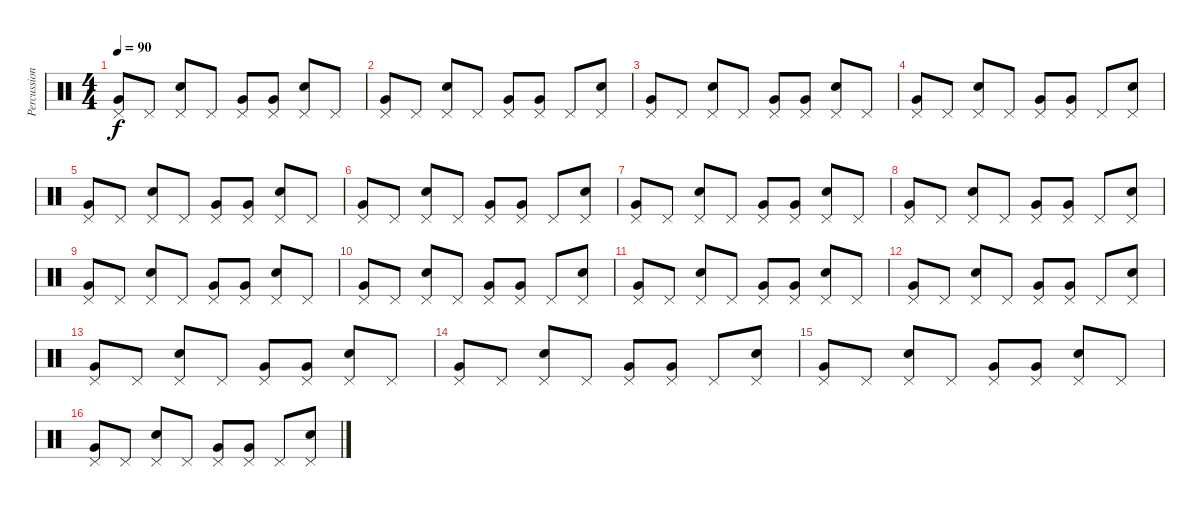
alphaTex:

\track ("Percussion" "Percussion") {instrument percussion}
\staff {score}
\articulation defaults
\ts (4 4)
\tempo 90
\clef neutral
\ks c
("Pedal Hi-Hat (hit)" "Very Low Tom (hit)").8{dy f} "Pedal Hi-Hat (hit)".8 ("Pedal Hi-Hat (hit)" "Snare (hit) 2").8 "Pedal Hi-Hat (hit)".8 ("Pedal Hi-Hat (hit)" "Very Low Tom (hit)").8 ("Pedal Hi-Hat (hit)" "Very Low Tom (hit)").8 ("Pedal Hi-Hat (hit)" "Snare (hit) 2").8 "Pedal Hi-Hat (hit)".8 |
("Pedal Hi-Hat (hit)" "Very Low Tom (hit)").8 "Pedal Hi-Hat (hit)".8 ("Pedal Hi-Hat (hit)" "Snare (hit) 2").8 "Pedal Hi-Hat (hit)".8 ("Pedal Hi-Hat (hit)" "Very Low Tom (hit)").8 ("Pedal Hi-Hat (hit)" "Very Low Tom (hit)").8 "Pedal Hi-Hat (hit)".8 ("Pedal Hi-Hat (hit)" "Snare (hit) 2").8 |
("Pedal Hi-Hat (hit)" "Very Low Tom (hit)").8 "Pedal Hi-Hat (hit)".8 ("Pedal Hi-Hat (hit)" "Snare (hit) 2").8 "Pedal Hi-Hat (hit)".8 ("Pedal Hi-Hat (hit)" "Very Low Tom (hit)").8 ("Pedal Hi-Hat (hit)" "Very Low Tom (hit)").8 ("Pedal Hi-Hat (hit)" "Snare (hit) 2").8 "Pedal Hi-Hat (hit)".8 |
("Pedal Hi-Hat (hit)" "Very Low Tom (hit)").8 "Pedal Hi-Hat (hit)".8 ("Pedal Hi-Hat (hit)" "Snare (hit) 2").8 "Pedal Hi-Hat (hit)".8 ("Pedal Hi-Hat (hit)" "Very Low Tom (hit)").8 ("Pedal Hi-Hat (hit)" "Very Low Tom (hit)").8 "Pedal Hi-Hat (hit)".8 ("Pedal Hi-Hat (hit)" "Snare (hit) 2").8 |
("Pedal Hi-Hat (hit)" "Very Low Tom (hit)").8 "Pedal Hi-Hat (hit)".8 ("Pedal Hi-Hat (hit)" "Snare (hit) 2").8 "Pedal Hi-Hat (hit)".8 ("Pedal Hi-Hat (hit)" "Very Low Tom (hit)").8 ("Pedal Hi-Hat (hit)" "Very Low Tom (hit)").8 ("Pedal Hi-Hat (hit)" "Snare (hit) 2").8 "Pedal Hi-Hat (hit)".8 |
("Pedal Hi-Hat (hit)" "Very Low Tom (hit)").8 "Pedal Hi-Hat (hit)".8 ("Pedal Hi-Hat (hit)" "Snare (hit) 2").8 "Pedal Hi-Hat (hit)".8 ("Pedal Hi-Hat (hit)" "Very Low Tom (hit)").8 ("Pedal Hi-Hat (hit)" "Very Low Tom (hit)").8 "Pedal Hi-Hat (hit)".8 ("Pedal Hi-Hat (hit)" "Snare (hit) 2").8 |
("Pedal Hi-Hat (hit)" "Very Low Tom (hit)").8 "Pedal Hi-Hat (hit)".8 ("Pedal Hi-Hat (hit)" "Snare (hit) 2").8 "Pedal Hi-Hat (hit)".8 ("Pedal Hi-Hat (hit)" "Very Low Tom (hit)").8 ("Pedal Hi-Hat (hit)" "Very Low Tom (hit)").8 ("Pedal Hi-Hat (hit)" "Snare (hit) 2").8 "Pedal Hi-Hat (hit)".8 |
("Pedal Hi-Hat (hit)" "Very Low Tom (hit)").8 "Pedal Hi-Hat (hit)".8 ("Pedal Hi-Hat (hit)" "Snare (hit) 2").8 "Pedal Hi-Hat (hit)".8 ("Pedal Hi-Hat (hit)" "Very Low Tom (hit)").8 ("Pedal Hi-Hat (hit)" "Very Low Tom (hit)").8 "Pedal Hi-Hat (hit)".8 ("Pedal Hi-Hat (hit)" "Snare (hit) 2").8 |
("Pedal Hi-Hat (hit)" "Very Low Tom (hit)").8 "Pedal Hi-Hat (hit)".8 ("Pedal Hi-Hat (hit)" "Snare (hit) 2").8 "Pedal Hi-Hat (hit)".8 ("Pedal Hi-Hat (hit)" "Very Low Tom (hit)").8 ("Pedal Hi-Hat (hit)" "Very Low Tom (hit)").8 ("Pedal Hi-Hat (hit)" "Snare (hit) 2").8 "Pedal Hi-Hat (hit)".8 |
("Pedal Hi-Hat (hit)" "Very Low Tom (hit)").8 "Pedal Hi-Hat (hit)".8 ("Pedal Hi-Hat (hit)" "Snare (hit) 2").8 "Pedal Hi-Hat (hit)".8 ("Pedal Hi-Hat (hit)" "Very Low Tom (hit)").8 ("Pedal Hi-Hat (hit)" "Very Low Tom (hit)").8 "Pedal Hi-Hat (hit)".8 ("Pedal Hi-Hat (hit)" "Snare (hit) 2").8 |
("Pedal Hi-Hat (hit)" "Very Low Tom (hit)").8 "Pedal Hi-Hat (hit)".8 ("Pedal Hi-Hat (hit)" "Snare (hit) 2").8 "Pedal Hi-Hat (hit)".8 ("Pedal Hi-Hat (hit)" "Very Low Tom (hit)").8 ("Pedal Hi-Hat (hit)" "Very Low Tom (hit)").8 ("Pedal Hi-Hat (hit)" "Snare (hit) 2").8 "Pedal Hi-Hat (hit)".8 |
("Pedal Hi-Hat (hit)" "Very Low Tom (hit)").8 "Pedal Hi-Hat (hit)".8 ("Pedal Hi-Hat (hit)" "Snare (hit) 2").8 "Pedal Hi-Hat (hit)".8 ("Pedal Hi-Hat (hit)" "Very Low Tom (hit)").8 ("Pedal Hi-Hat (hit)" "Very Low Tom (hit)").8 "Pedal Hi-Hat (hit)".8 ("Pedal Hi-Hat (hit)" "Snare (hit) 2").8 |
("Pedal Hi-Hat (hit)" "Very Low Tom (hit)").8 "Pedal Hi-Hat (hit)".8 ("Pedal Hi-Hat (hit)" "Snare (hit) 2").8 "Pedal Hi-Hat (hit)".8 ("Pedal Hi-Hat (hit)" "Very Low Tom (hit)").8 ("Pedal Hi-Hat (hit)" "Very Low Tom (hit)").8 ("Pedal Hi-Hat (hit)" "Snare (hit) 2").8 "Pedal Hi-Hat (hit)".8 |
("Pedal Hi-Hat (hit)" "Very Low Tom (hit)").8 "Pedal Hi-Hat (hit)".8 ("Pedal Hi-Hat (hit)" "Snare (hit) 2").8 "Pedal Hi-Hat (hit)".8 ("Pedal Hi-Hat (hit)" "Very Low Tom (hit)").8 ("Pedal Hi-Hat (hit)" "Very Low Tom (hit)").8 "Pedal Hi-Hat (hit)".8 ("Pedal Hi-Hat (hit)" "Snare (hit) 2").8 |
("Pedal Hi-Hat (hit)" "Very Low Tom (hit)").8 "Pedal Hi-Hat (hit)".8 ("Pedal Hi-Hat (hit)" "Snare (hit) 2").8 "Pedal Hi-Hat (hit)".8 ("Pedal Hi-Hat (hit)" "Very Low Tom (hit)").8 ("Pedal Hi-Hat (hit)" "Very Low Tom (hit)").8 ("Pedal Hi-Hat (hit)" "Snare (hit) 2").8 "Pedal Hi-Hat (hit)".8 |
("Pedal Hi-Hat (hit)" "Very Low Tom (hit)").8 "Pedal Hi-Hat (hit)".8 ("Pedal Hi-Hat (hit)" "Snare (hit) 2").8 "Pedal Hi-Hat (hit)".8 ("Pedal Hi-Hat (hit)" "Very Low Tom (hit)").8 ("Pedal Hi-Hat (hit)" "Very Low Tom (hit)").8 "Pedal Hi-Hat (hit)".8 ("Pedal Hi-Hat (hit)" "Snare (hit) 2").8
